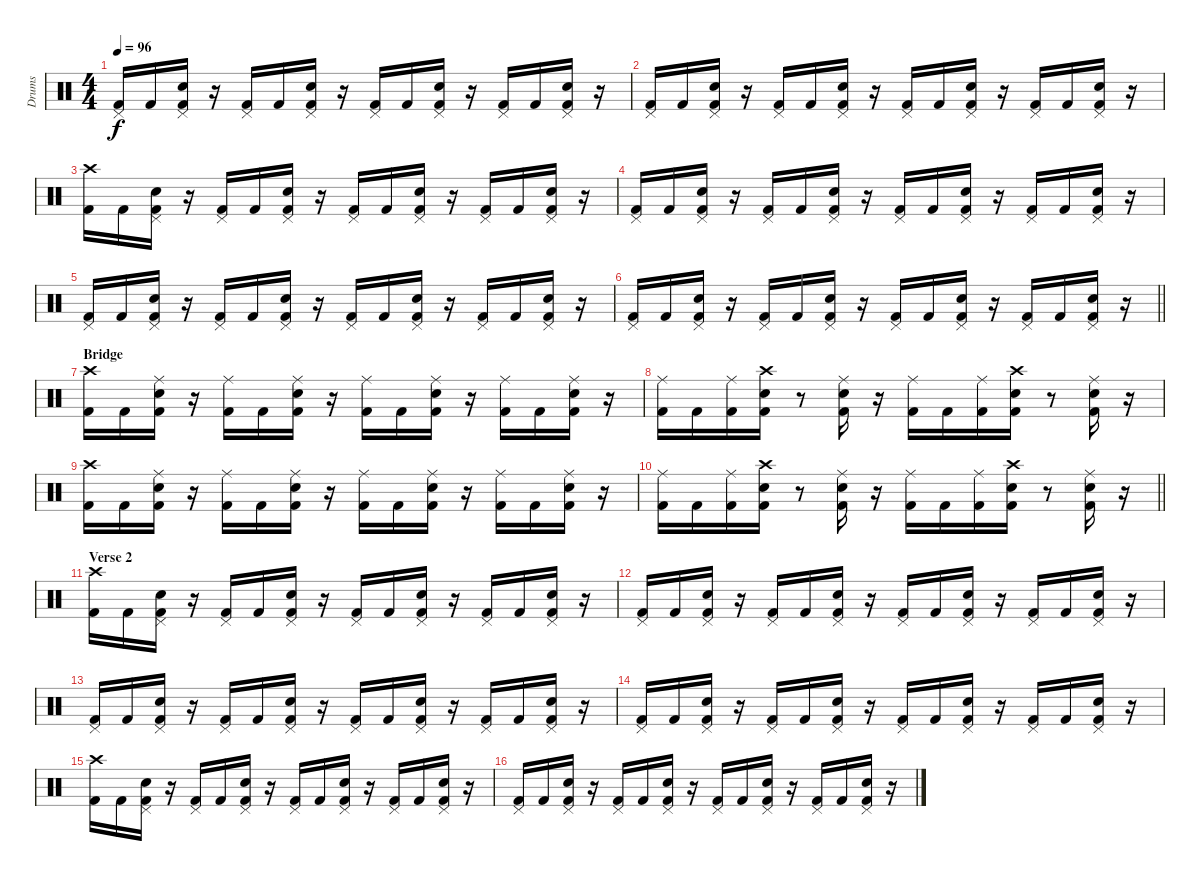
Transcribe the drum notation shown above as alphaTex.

\track ("Drums" "Drums") {instrument percussion}
\staff {score}
\articulation defaults
\ts (4 4)
\tempo 96
\clef neutral
\ks c
("Pedal Hi-Hat (hit)" "Kick (hit) 2").16{dy f} "Kick (hit) 2".16 ("Pedal Hi-Hat (hit)" "Snare (hit) 2" "Kick (hit) 2").16 r.16 ("Pedal Hi-Hat (hit)" "Kick (hit) 2").16 "Kick (hit) 2".16 ("Pedal Hi-Hat (hit)" "Snare (hit) 2" "Kick (hit) 2").16 r.16 ("Pedal Hi-Hat (hit)" "Kick (hit) 2").16 "Kick (hit) 2".16 ("Pedal Hi-Hat (hit)" "Snare (hit) 2" "Kick (hit) 2").16 r.16 ("Pedal Hi-Hat (hit)" "Kick (hit) 2").16 "Kick (hit) 2".16 ("Pedal Hi-Hat (hit)" "Snare (hit) 2" "Kick (hit) 2").16 r.16 |
("Pedal Hi-Hat (hit)" "Kick (hit) 2").16 "Kick (hit) 2".16 ("Pedal Hi-Hat (hit)" "Snare (hit) 2" "Kick (hit) 2").16 r.16 ("Pedal Hi-Hat (hit)" "Kick (hit) 2").16 "Kick (hit) 2".16 ("Pedal Hi-Hat (hit)" "Snare (hit) 2" "Kick (hit) 2").16 r.16 ("Pedal Hi-Hat (hit)" "Kick (hit) 2").16 "Kick (hit) 2".16 ("Pedal Hi-Hat (hit)" "Snare (hit) 2" "Kick (hit) 2").16 r.16 ("Pedal Hi-Hat (hit)" "Kick (hit) 2").16 "Kick (hit) 2".16 ("Pedal Hi-Hat (hit)" "Snare (hit) 2" "Kick (hit) 2").16 r.16 |
("Crash high (hit)" "Kick (hit) 2").16 "Kick (hit) 2".16 ("Pedal Hi-Hat (hit)" "Snare (hit) 2" "Kick (hit) 2").16 r.16 ("Pedal Hi-Hat (hit)" "Kick (hit) 2").16 "Kick (hit) 2".16 ("Pedal Hi-Hat (hit)" "Snare (hit) 2" "Kick (hit) 2").16 r.16 ("Pedal Hi-Hat (hit)" "Kick (hit) 2").16 "Kick (hit) 2".16 ("Pedal Hi-Hat (hit)" "Snare (hit) 2" "Kick (hit) 2").16 r.16 ("Pedal Hi-Hat (hit)" "Kick (hit) 2").16 "Kick (hit) 2".16 ("Pedal Hi-Hat (hit)" "Snare (hit) 2" "Kick (hit) 2").16 r.16 |
("Pedal Hi-Hat (hit)" "Kick (hit) 2").16 "Kick (hit) 2".16 ("Pedal Hi-Hat (hit)" "Snare (hit) 2" "Kick (hit) 2").16 r.16 ("Pedal Hi-Hat (hit)" "Kick (hit) 2").16 "Kick (hit) 2".16 ("Pedal Hi-Hat (hit)" "Snare (hit) 2" "Kick (hit) 2").16 r.16 ("Pedal Hi-Hat (hit)" "Kick (hit) 2").16 "Kick (hit) 2".16 ("Pedal Hi-Hat (hit)" "Snare (hit) 2" "Kick (hit) 2").16 r.16 ("Pedal Hi-Hat (hit)" "Kick (hit) 2").16 "Kick (hit) 2".16 ("Pedal Hi-Hat (hit)" "Snare (hit) 2" "Kick (hit) 2").16 r.16 |
("Pedal Hi-Hat (hit)" "Kick (hit) 2").16 "Kick (hit) 2".16 ("Pedal Hi-Hat (hit)" "Snare (hit) 2" "Kick (hit) 2").16 r.16 ("Pedal Hi-Hat (hit)" "Kick (hit) 2").16 "Kick (hit) 2".16 ("Pedal Hi-Hat (hit)" "Snare (hit) 2" "Kick (hit) 2").16 r.16 ("Pedal Hi-Hat (hit)" "Kick (hit) 2").16 "Kick (hit) 2".16 ("Pedal Hi-Hat (hit)" "Snare (hit) 2" "Kick (hit) 2").16 r.16 ("Pedal Hi-Hat (hit)" "Kick (hit) 2").16 "Kick (hit) 2".16 ("Pedal Hi-Hat (hit)" "Snare (hit) 2" "Kick (hit) 2").16 r.16 |
\barLineRight lightlight
("Pedal Hi-Hat (hit)" "Kick (hit) 2").16 "Kick (hit) 2".16 ("Pedal Hi-Hat (hit)" "Snare (hit) 2" "Kick (hit) 2").16 r.16 ("Pedal Hi-Hat (hit)" "Kick (hit) 2").16 "Kick (hit) 2".16 ("Pedal Hi-Hat (hit)" "Snare (hit) 2" "Kick (hit) 2").16 r.16 ("Pedal Hi-Hat (hit)" "Kick (hit) 2").16 "Kick (hit) 2".16 ("Pedal Hi-Hat (hit)" "Snare (hit) 2" "Kick (hit) 2").16 r.16 ("Pedal Hi-Hat (hit)" "Kick (hit) 2").16 "Kick (hit) 2".16 ("Pedal Hi-Hat (hit)" "Snare (hit) 2" "Kick (hit) 2").16 r.16 |
\section ("" "Bridge")
("Crash high (hit)" "Kick (hit) 2").16 "Kick (hit) 2".16 ("Ride (middle)" "Snare (hit) 2" "Kick (hit) 2").16 r.16 ("Ride (middle)" "Kick (hit) 2").16 "Kick (hit) 2".16 ("Ride (middle)" "Snare (hit) 2" "Kick (hit) 2").16 r.16 ("Ride (middle)" "Kick (hit) 2").16 "Kick (hit) 2".16 ("Ride (middle)" "Snare (hit) 2" "Kick (hit) 2").16 r.16 ("Ride (middle)" "Kick (hit) 2").16 "Kick (hit) 2".16 ("Ride (middle)" "Snare (hit) 2" "Kick (hit) 2").16 r.16 |
("Ride (middle)" "Kick (hit) 2").16 "Kick (hit) 2".16 ("Ride (middle)" "Kick (hit) 2").16 ("Crash high (hit)" "Snare (hit) 2" "Kick (hit) 2").16 r.8 ("Ride (middle)" "Snare (hit) 2" "Kick (hit) 2").16 r.16 ("Ride (middle)" "Kick (hit) 2").16 "Kick (hit) 2".16 ("Ride (middle)" "Kick (hit) 2").16 ("Crash high (hit)" "Snare (hit) 2" "Kick (hit) 2").16 r.8 ("Ride (middle)" "Snare (hit) 2" "Kick (hit) 2").16 r.16 |
("Crash high (hit)" "Kick (hit) 2").16 "Kick (hit) 2".16 ("Ride (middle)" "Snare (hit) 2" "Kick (hit) 2").16 r.16 ("Ride (middle)" "Kick (hit) 2").16 "Kick (hit) 2".16 ("Ride (middle)" "Snare (hit) 2" "Kick (hit) 2").16 r.16 ("Ride (middle)" "Kick (hit) 2").16 "Kick (hit) 2".16 ("Ride (middle)" "Snare (hit) 2" "Kick (hit) 2").16 r.16 ("Ride (middle)" "Kick (hit) 2").16 "Kick (hit) 2".16 ("Ride (middle)" "Snare (hit) 2" "Kick (hit) 2").16 r.16 |
\barLineRight lightlight
("Ride (middle)" "Kick (hit) 2").16 "Kick (hit) 2".16 ("Ride (middle)" "Kick (hit) 2").16 ("Crash high (hit)" "Snare (hit) 2" "Kick (hit) 2").16 r.8 ("Ride (middle)" "Snare (hit) 2" "Kick (hit) 2").16 r.16 ("Ride (middle)" "Kick (hit) 2").16 "Kick (hit) 2".16 ("Ride (middle)" "Kick (hit) 2").16 ("Crash high (hit)" "Snare (hit) 2" "Kick (hit) 2").16 r.8 ("Ride (middle)" "Snare (hit) 2" "Kick (hit) 2").16 r.16 |
\section ("" "Verse 2")
("Crash high (hit)" "Kick (hit) 2").16 "Kick (hit) 2".16 ("Pedal Hi-Hat (hit)" "Snare (hit) 2" "Kick (hit) 2").16 r.16 ("Pedal Hi-Hat (hit)" "Kick (hit) 2").16 "Kick (hit) 2".16 ("Pedal Hi-Hat (hit)" "Snare (hit) 2" "Kick (hit) 2").16 r.16 ("Pedal Hi-Hat (hit)" "Kick (hit) 2").16 "Kick (hit) 2".16 ("Pedal Hi-Hat (hit)" "Snare (hit) 2" "Kick (hit) 2").16 r.16 ("Pedal Hi-Hat (hit)" "Kick (hit) 2").16 "Kick (hit) 2".16 ("Pedal Hi-Hat (hit)" "Snare (hit) 2" "Kick (hit) 2").16 r.16 |
("Pedal Hi-Hat (hit)" "Kick (hit) 2").16 "Kick (hit) 2".16 ("Pedal Hi-Hat (hit)" "Snare (hit) 2" "Kick (hit) 2").16 r.16 ("Pedal Hi-Hat (hit)" "Kick (hit) 2").16 "Kick (hit) 2".16 ("Pedal Hi-Hat (hit)" "Snare (hit) 2" "Kick (hit) 2").16 r.16 ("Pedal Hi-Hat (hit)" "Kick (hit) 2").16 "Kick (hit) 2".16 ("Pedal Hi-Hat (hit)" "Snare (hit) 2" "Kick (hit) 2").16 r.16 ("Pedal Hi-Hat (hit)" "Kick (hit) 2").16 "Kick (hit) 2".16 ("Pedal Hi-Hat (hit)" "Snare (hit) 2" "Kick (hit) 2").16 r.16 |
("Pedal Hi-Hat (hit)" "Kick (hit) 2").16 "Kick (hit) 2".16 ("Pedal Hi-Hat (hit)" "Snare (hit) 2" "Kick (hit) 2").16 r.16 ("Pedal Hi-Hat (hit)" "Kick (hit) 2").16 "Kick (hit) 2".16 ("Pedal Hi-Hat (hit)" "Snare (hit) 2" "Kick (hit) 2").16 r.16 ("Pedal Hi-Hat (hit)" "Kick (hit) 2").16 "Kick (hit) 2".16 ("Pedal Hi-Hat (hit)" "Snare (hit) 2" "Kick (hit) 2").16 r.16 ("Pedal Hi-Hat (hit)" "Kick (hit) 2").16 "Kick (hit) 2".16 ("Pedal Hi-Hat (hit)" "Snare (hit) 2" "Kick (hit) 2").16 r.16 |
("Pedal Hi-Hat (hit)" "Kick (hit) 2").16 "Kick (hit) 2".16 ("Pedal Hi-Hat (hit)" "Snare (hit) 2" "Kick (hit) 2").16 r.16 ("Pedal Hi-Hat (hit)" "Kick (hit) 2").16 "Kick (hit) 2".16 ("Pedal Hi-Hat (hit)" "Snare (hit) 2" "Kick (hit) 2").16 r.16 ("Pedal Hi-Hat (hit)" "Kick (hit) 2").16 "Kick (hit) 2".16 ("Pedal Hi-Hat (hit)" "Snare (hit) 2" "Kick (hit) 2").16 r.16 ("Pedal Hi-Hat (hit)" "Kick (hit) 2").16 "Kick (hit) 2".16 ("Pedal Hi-Hat (hit)" "Snare (hit) 2" "Kick (hit) 2").16 r.16 |
("Crash high (hit)" "Kick (hit) 2").16 "Kick (hit) 2".16 ("Pedal Hi-Hat (hit)" "Snare (hit) 2" "Kick (hit) 2").16 r.16 ("Pedal Hi-Hat (hit)" "Kick (hit) 2").16 "Kick (hit) 2".16 ("Pedal Hi-Hat (hit)" "Snare (hit) 2" "Kick (hit) 2").16 r.16 ("Pedal Hi-Hat (hit)" "Kick (hit) 2").16 "Kick (hit) 2".16 ("Pedal Hi-Hat (hit)" "Snare (hit) 2" "Kick (hit) 2").16 r.16 ("Pedal Hi-Hat (hit)" "Kick (hit) 2").16 "Kick (hit) 2".16 ("Pedal Hi-Hat (hit)" "Snare (hit) 2" "Kick (hit) 2").16 r.16 |
("Pedal Hi-Hat (hit)" "Kick (hit) 2").16 "Kick (hit) 2".16 ("Pedal Hi-Hat (hit)" "Snare (hit) 2" "Kick (hit) 2").16 r.16 ("Pedal Hi-Hat (hit)" "Kick (hit) 2").16 "Kick (hit) 2".16 ("Pedal Hi-Hat (hit)" "Snare (hit) 2" "Kick (hit) 2").16 r.16 ("Pedal Hi-Hat (hit)" "Kick (hit) 2").16 "Kick (hit) 2".16 ("Pedal Hi-Hat (hit)" "Snare (hit) 2" "Kick (hit) 2").16 r.16 ("Pedal Hi-Hat (hit)" "Kick (hit) 2").16 "Kick (hit) 2".16 ("Pedal Hi-Hat (hit)" "Snare (hit) 2" "Kick (hit) 2").16 r.16
